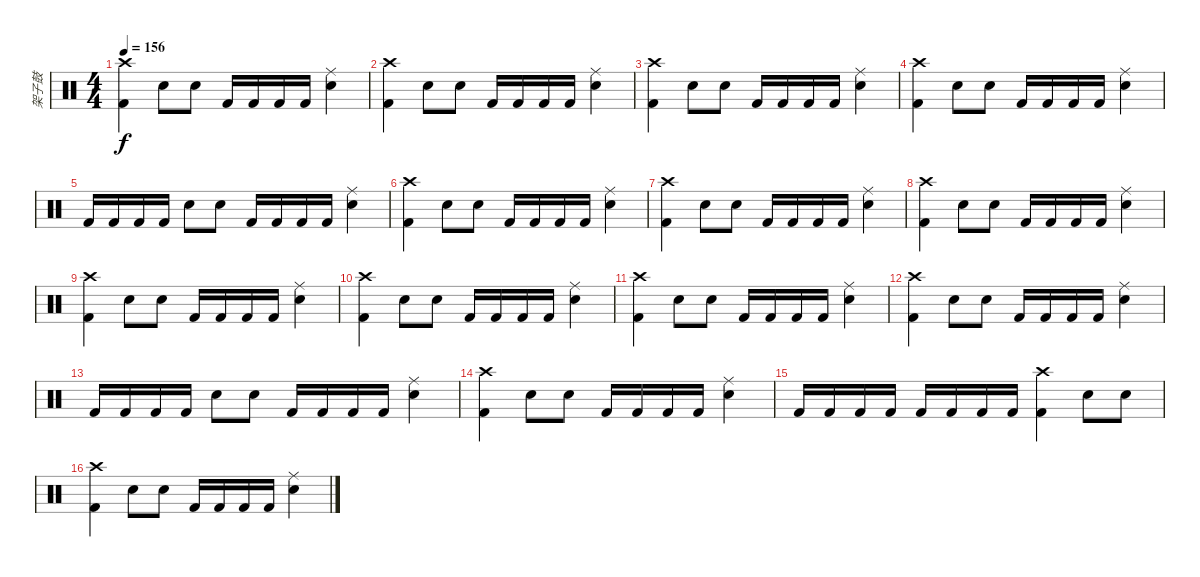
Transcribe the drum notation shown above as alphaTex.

\track ("架子鼓" "架子鼓") {instrument percussion}
\staff {score}
\articulation defaults
\ts (4 4)
\tempo 156
\clef neutral
\ks c
("Kick (hit) 2" "Crash high (hit)").4{dy f} "Snare (hit) 2".8 "Snare (hit) 2".8 "Kick (hit) 2".16 "Kick (hit) 2".16 "Kick (hit) 2".16 "Kick (hit) 2".16 ("Electric Snare (hit)" "Ride (middle)").4 |
("Kick (hit) 2" "Crash high (hit)").4 "Snare (hit) 2".8 "Snare (hit) 2".8 "Kick (hit) 2".16 "Kick (hit) 2".16 "Kick (hit) 2".16 "Kick (hit) 2".16 ("Electric Snare (hit)" "Ride (middle)").4 |
("Kick (hit) 2" "Crash high (hit)").4 "Snare (hit) 2".8 "Snare (hit) 2".8 "Kick (hit) 2".16 "Kick (hit) 2".16 "Kick (hit) 2".16 "Kick (hit) 2".16 ("Electric Snare (hit)" "Ride (middle)").4 |
("Kick (hit) 2" "Crash high (hit)").4 "Snare (hit) 2".8 "Snare (hit) 2".8 "Kick (hit) 2".16 "Kick (hit) 2".16 "Kick (hit) 2".16 "Kick (hit) 2".16 ("Electric Snare (hit)" "Ride (middle)").4 |
"Kick (hit) 2".16 "Kick (hit) 2".16 "Kick (hit) 2".16 "Kick (hit) 2".16 "Snare (hit) 2".8 "Snare (hit) 2".8 "Kick (hit) 2".16 "Kick (hit) 2".16 "Kick (hit) 2".16 "Kick (hit) 2".16 ("Electric Snare (hit)" "Ride (middle)").4 |
("Kick (hit) 2" "Crash high (hit)").4 "Snare (hit) 2".8 "Snare (hit) 2".8 "Kick (hit) 2".16 "Kick (hit) 2".16 "Kick (hit) 2".16 "Kick (hit) 2".16 ("Electric Snare (hit)" "Ride (middle)").4 |
("Kick (hit) 2" "Crash high (hit)").4 "Snare (hit) 2".8 "Snare (hit) 2".8 "Kick (hit) 2".16 "Kick (hit) 2".16 "Kick (hit) 2".16 "Kick (hit) 2".16 ("Electric Snare (hit)" "Ride (middle)").4 |
("Kick (hit) 2" "Crash high (hit)").4 "Snare (hit) 2".8 "Snare (hit) 2".8 "Kick (hit) 2".16 "Kick (hit) 2".16 "Kick (hit) 2".16 "Kick (hit) 2".16 ("Electric Snare (hit)" "Ride (middle)").4 |
("Kick (hit) 2" "Crash high (hit)").4 "Snare (hit) 2".8 "Snare (hit) 2".8 "Kick (hit) 2".16 "Kick (hit) 2".16 "Kick (hit) 2".16 "Kick (hit) 2".16 ("Electric Snare (hit)" "Ride (middle)").4 |
("Kick (hit) 2" "Crash high (hit)").4 "Snare (hit) 2".8 "Snare (hit) 2".8 "Kick (hit) 2".16 "Kick (hit) 2".16 "Kick (hit) 2".16 "Kick (hit) 2".16 ("Electric Snare (hit)" "Ride (middle)").4 |
("Kick (hit) 2" "Crash high (hit)").4 "Snare (hit) 2".8 "Snare (hit) 2".8 "Kick (hit) 2".16 "Kick (hit) 2".16 "Kick (hit) 2".16 "Kick (hit) 2".16 ("Electric Snare (hit)" "Ride (middle)").4 |
("Kick (hit) 2" "Crash high (hit)").4 "Snare (hit) 2".8 "Snare (hit) 2".8 "Kick (hit) 2".16 "Kick (hit) 2".16 "Kick (hit) 2".16 "Kick (hit) 2".16 ("Electric Snare (hit)" "Ride (middle)").4 |
"Kick (hit) 2".16 "Kick (hit) 2".16 "Kick (hit) 2".16 "Kick (hit) 2".16 "Snare (hit) 2".8 "Snare (hit) 2".8 "Kick (hit) 2".16 "Kick (hit) 2".16 "Kick (hit) 2".16 "Kick (hit) 2".16 ("Electric Snare (hit)" "Ride (middle)").4 |
("Kick (hit) 2" "Crash high (hit)").4 "Snare (hit) 2".8 "Snare (hit) 2".8 "Kick (hit) 2".16 "Kick (hit) 2".16 "Kick (hit) 2".16 "Kick (hit) 2".16 ("Electric Snare (hit)" "Ride (middle)").4 |
"Kick (hit) 2".16 "Kick (hit) 2".16 "Kick (hit) 2".16 "Kick (hit) 2".16 "Kick (hit) 2".16 "Kick (hit) 2".16 "Kick (hit) 2".16 "Kick (hit) 2".16 ("Kick (hit) 2" "Crash high (hit)").4 "Snare (hit) 2".8 "Snare (hit) 2".8 |
("Kick (hit) 2" "Crash high (hit)").4 "Snare (hit) 2".8 "Snare (hit) 2".8 "Kick (hit) 2".16 "Kick (hit) 2".16 "Kick (hit) 2".16 "Kick (hit) 2".16 ("Electric Snare (hit)" "Ride (middle)").4
